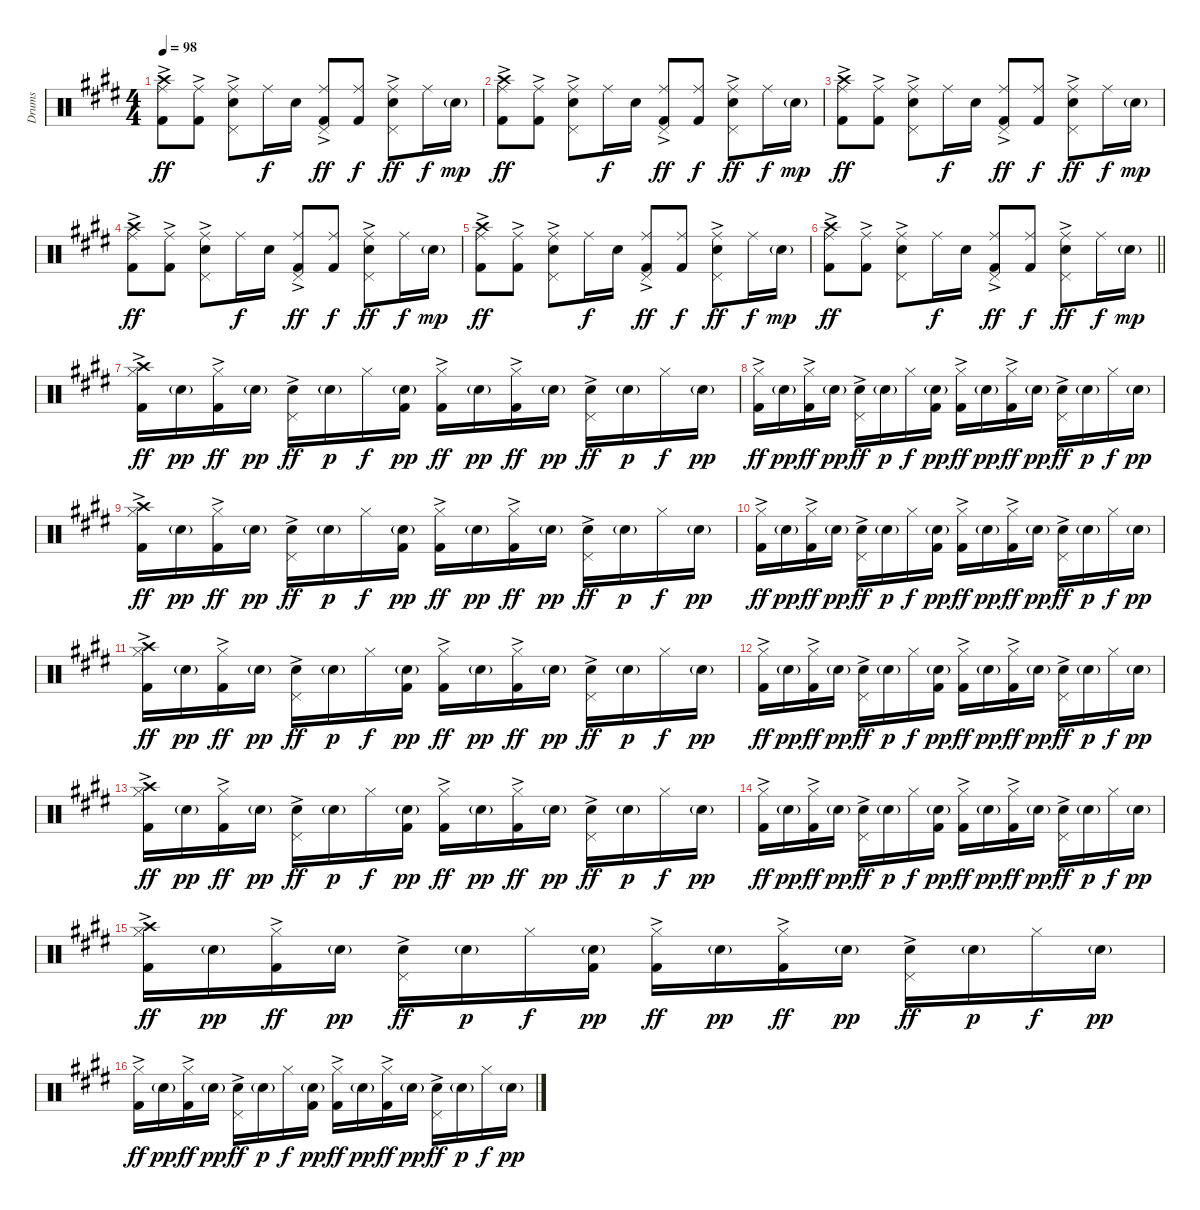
\track ("Drums" "Drums") {instrument percussion}
\staff {score}
\articulation defaults
\ts (4 4)
\tempo 98
\clef neutral
\ks e
("Crash high (hit)" "Ride (middle)" "Kick (hit) 2"{ac}).8{dy ff} ("Ride (middle)" "Kick (hit) 2"{ac}).8 ("Pedal Hi-Hat (hit)" "Snare (hit) 2"{ac} "Ride (middle)").8 "Ride (middle)".16{dy f} "Snare (hit) 2".16 ("Pedal Hi-Hat (hit)" "Ride (middle)" "Kick (hit) 2"{ac}).8{dy ff} ("Ride (middle)" "Kick (hit) 2").8{dy f} ("Pedal Hi-Hat (hit)" "Snare (hit) 2"{ac} "Ride (middle)").8{dy ff} "Ride (middle)".16{dy f} "Snare (hit) 2"{g}.16{dy mp} |
("Crash high (hit)" "Ride (middle)" "Kick (hit) 2"{ac}).8{dy ff} ("Ride (middle)" "Kick (hit) 2"{ac}).8 ("Pedal Hi-Hat (hit)" "Snare (hit) 2"{ac} "Ride (middle)").8 "Ride (middle)".16{dy f} "Snare (hit) 2".16 ("Pedal Hi-Hat (hit)" "Ride (middle)" "Kick (hit) 2"{ac}).8{dy ff} ("Ride (middle)" "Kick (hit) 2").8{dy f} ("Pedal Hi-Hat (hit)" "Snare (hit) 2"{ac} "Ride (middle)").8{dy ff} "Ride (middle)".16{dy f} "Snare (hit) 2"{g}.16{dy mp} |
("Crash high (hit)" "Ride (middle)" "Kick (hit) 2"{ac}).8{dy ff} ("Ride (middle)" "Kick (hit) 2"{ac}).8 ("Pedal Hi-Hat (hit)" "Snare (hit) 2"{ac} "Ride (middle)").8 "Ride (middle)".16{dy f} "Snare (hit) 2".16 ("Pedal Hi-Hat (hit)" "Ride (middle)" "Kick (hit) 2"{ac}).8{dy ff} ("Ride (middle)" "Kick (hit) 2").8{dy f} ("Pedal Hi-Hat (hit)" "Snare (hit) 2"{ac} "Ride (middle)").8{dy ff} "Ride (middle)".16{dy f} "Snare (hit) 2"{g}.16{dy mp} |
("Crash high (hit)" "Ride (middle)" "Kick (hit) 2"{ac}).8{dy ff} ("Ride (middle)" "Kick (hit) 2"{ac}).8 ("Pedal Hi-Hat (hit)" "Snare (hit) 2"{ac} "Ride (middle)").8 "Ride (middle)".16{dy f} "Snare (hit) 2".16 ("Pedal Hi-Hat (hit)" "Ride (middle)" "Kick (hit) 2"{ac}).8{dy ff} ("Ride (middle)" "Kick (hit) 2").8{dy f} ("Pedal Hi-Hat (hit)" "Snare (hit) 2"{ac} "Ride (middle)").8{dy ff} "Ride (middle)".16{dy f} "Snare (hit) 2"{g}.16{dy mp} |
("Crash high (hit)" "Ride (middle)" "Kick (hit) 2"{ac}).8{dy ff} ("Ride (middle)" "Kick (hit) 2"{ac}).8 ("Pedal Hi-Hat (hit)" "Snare (hit) 2"{ac} "Ride (middle)").8 "Ride (middle)".16{dy f} "Snare (hit) 2".16 ("Pedal Hi-Hat (hit)" "Ride (middle)" "Kick (hit) 2"{ac}).8{dy ff} ("Ride (middle)" "Kick (hit) 2").8{dy f} ("Pedal Hi-Hat (hit)" "Snare (hit) 2"{ac} "Ride (middle)").8{dy ff} "Ride (middle)".16{dy f} "Snare (hit) 2"{g}.16{dy mp} |
\barLineRight lightlight
("Crash high (hit)" "Ride (middle)" "Kick (hit) 2"{ac}).8{dy ff} ("Ride (middle)" "Kick (hit) 2"{ac}).8 ("Pedal Hi-Hat (hit)" "Snare (hit) 2"{ac} "Ride (middle)").8 "Ride (middle)".16{dy f} "Snare (hit) 2".16 ("Pedal Hi-Hat (hit)" "Ride (middle)" "Kick (hit) 2"{ac}).8{dy ff} ("Ride (middle)" "Kick (hit) 2").8{dy f} ("Pedal Hi-Hat (hit)" "Snare (hit) 2"{ac} "Ride (middle)").8{dy ff} "Ride (middle)".16{dy f} "Snare (hit) 2"{g}.16{dy mp} |
("Hi-Hat (closed)" "Crash high (hit)" "Kick (hit) 2"{ac}).16{dy ff} "Snare (hit) 2"{g}.16{dy pp} ("Hi-Hat (closed)" "Kick (hit) 2"{ac}).16{dy ff} "Snare (hit) 2"{g}.16{dy pp} ("Pedal Hi-Hat (hit)" "Snare (hit) 2"{ac}).16{dy ff} "Snare (hit) 2"{g}.16{dy p} "Hi-Hat (closed)".16{dy f} ("Snare (hit) 2"{g} "Kick (hit) 2").16{dy pp} ("Hi-Hat (closed)" "Kick (hit) 2"{ac}).16{dy ff} "Snare (hit) 2"{g}.16{dy pp} ("Hi-Hat (closed)" "Kick (hit) 2"{ac}).16{dy ff} "Snare (hit) 2"{g}.16{dy pp} ("Pedal Hi-Hat (hit)" "Snare (hit) 2"{ac}).16{dy ff} "Snare (hit) 2"{g}.16{dy p} "Hi-Hat (closed)".16{dy f} "Snare (hit) 2"{g}.16{dy pp} |
("Hi-Hat (closed)" "Kick (hit) 2"{ac}).16{dy ff} "Snare (hit) 2"{g}.16{dy pp} ("Hi-Hat (closed)" "Kick (hit) 2"{ac}).16{dy ff} "Snare (hit) 2"{g}.16{dy pp} ("Pedal Hi-Hat (hit)" "Snare (hit) 2"{ac}).16{dy ff} "Snare (hit) 2"{g}.16{dy p} "Hi-Hat (closed)".16{dy f} ("Snare (hit) 2"{g} "Kick (hit) 2").16{dy pp} ("Hi-Hat (closed)" "Kick (hit) 2"{ac}).16{dy ff} "Snare (hit) 2"{g}.16{dy pp} ("Hi-Hat (closed)" "Kick (hit) 2"{ac}).16{dy ff} "Snare (hit) 2"{g}.16{dy pp} ("Pedal Hi-Hat (hit)" "Snare (hit) 2"{ac}).16{dy ff} "Snare (hit) 2"{g}.16{dy p} "Hi-Hat (closed)".16{dy f} "Snare (hit) 2"{g}.16{dy pp} |
("Hi-Hat (closed)" "Crash high (hit)" "Kick (hit) 2"{ac}).16{dy ff} "Snare (hit) 2"{g}.16{dy pp} ("Hi-Hat (closed)" "Kick (hit) 2"{ac}).16{dy ff} "Snare (hit) 2"{g}.16{dy pp} ("Pedal Hi-Hat (hit)" "Snare (hit) 2"{ac}).16{dy ff} "Snare (hit) 2"{g}.16{dy p} "Hi-Hat (closed)".16{dy f} ("Snare (hit) 2"{g} "Kick (hit) 2").16{dy pp} ("Hi-Hat (closed)" "Kick (hit) 2"{ac}).16{dy ff} "Snare (hit) 2"{g}.16{dy pp} ("Hi-Hat (closed)" "Kick (hit) 2"{ac}).16{dy ff} "Snare (hit) 2"{g}.16{dy pp} ("Pedal Hi-Hat (hit)" "Snare (hit) 2"{ac}).16{dy ff} "Snare (hit) 2"{g}.16{dy p} "Hi-Hat (closed)".16{dy f} "Snare (hit) 2"{g}.16{dy pp} |
("Hi-Hat (closed)" "Kick (hit) 2"{ac}).16{dy ff} "Snare (hit) 2"{g}.16{dy pp} ("Hi-Hat (closed)" "Kick (hit) 2"{ac}).16{dy ff} "Snare (hit) 2"{g}.16{dy pp} ("Pedal Hi-Hat (hit)" "Snare (hit) 2"{ac}).16{dy ff} "Snare (hit) 2"{g}.16{dy p} "Hi-Hat (closed)".16{dy f} ("Snare (hit) 2"{g} "Kick (hit) 2").16{dy pp} ("Hi-Hat (closed)" "Kick (hit) 2"{ac}).16{dy ff} "Snare (hit) 2"{g}.16{dy pp} ("Hi-Hat (closed)" "Kick (hit) 2"{ac}).16{dy ff} "Snare (hit) 2"{g}.16{dy pp} ("Pedal Hi-Hat (hit)" "Snare (hit) 2"{ac}).16{dy ff} "Snare (hit) 2"{g}.16{dy p} "Hi-Hat (closed)".16{dy f} "Snare (hit) 2"{g}.16{dy pp} |
("Hi-Hat (closed)" "Crash high (hit)" "Kick (hit) 2"{ac}).16{dy ff} "Snare (hit) 2"{g}.16{dy pp} ("Hi-Hat (closed)" "Kick (hit) 2"{ac}).16{dy ff} "Snare (hit) 2"{g}.16{dy pp} ("Pedal Hi-Hat (hit)" "Snare (hit) 2"{ac}).16{dy ff} "Snare (hit) 2"{g}.16{dy p} "Hi-Hat (closed)".16{dy f} ("Snare (hit) 2"{g} "Kick (hit) 2").16{dy pp} ("Hi-Hat (closed)" "Kick (hit) 2"{ac}).16{dy ff} "Snare (hit) 2"{g}.16{dy pp} ("Hi-Hat (closed)" "Kick (hit) 2"{ac}).16{dy ff} "Snare (hit) 2"{g}.16{dy pp} ("Pedal Hi-Hat (hit)" "Snare (hit) 2"{ac}).16{dy ff} "Snare (hit) 2"{g}.16{dy p} "Hi-Hat (closed)".16{dy f} "Snare (hit) 2"{g}.16{dy pp} |
("Hi-Hat (closed)" "Kick (hit) 2"{ac}).16{dy ff} "Snare (hit) 2"{g}.16{dy pp} ("Hi-Hat (closed)" "Kick (hit) 2"{ac}).16{dy ff} "Snare (hit) 2"{g}.16{dy pp} ("Pedal Hi-Hat (hit)" "Snare (hit) 2"{ac}).16{dy ff} "Snare (hit) 2"{g}.16{dy p} "Hi-Hat (closed)".16{dy f} ("Snare (hit) 2"{g} "Kick (hit) 2").16{dy pp} ("Hi-Hat (closed)" "Kick (hit) 2"{ac}).16{dy ff} "Snare (hit) 2"{g}.16{dy pp} ("Hi-Hat (closed)" "Kick (hit) 2"{ac}).16{dy ff} "Snare (hit) 2"{g}.16{dy pp} ("Pedal Hi-Hat (hit)" "Snare (hit) 2"{ac}).16{dy ff} "Snare (hit) 2"{g}.16{dy p} "Hi-Hat (closed)".16{dy f} "Snare (hit) 2"{g}.16{dy pp} |
("Hi-Hat (closed)" "Crash high (hit)" "Kick (hit) 2"{ac}).16{dy ff} "Snare (hit) 2"{g}.16{dy pp} ("Hi-Hat (closed)" "Kick (hit) 2"{ac}).16{dy ff} "Snare (hit) 2"{g}.16{dy pp} ("Pedal Hi-Hat (hit)" "Snare (hit) 2"{ac}).16{dy ff} "Snare (hit) 2"{g}.16{dy p} "Hi-Hat (closed)".16{dy f} ("Snare (hit) 2"{g} "Kick (hit) 2").16{dy pp} ("Hi-Hat (closed)" "Kick (hit) 2"{ac}).16{dy ff} "Snare (hit) 2"{g}.16{dy pp} ("Hi-Hat (closed)" "Kick (hit) 2"{ac}).16{dy ff} "Snare (hit) 2"{g}.16{dy pp} ("Pedal Hi-Hat (hit)" "Snare (hit) 2"{ac}).16{dy ff} "Snare (hit) 2"{g}.16{dy p} "Hi-Hat (closed)".16{dy f} "Snare (hit) 2"{g}.16{dy pp} |
("Hi-Hat (closed)" "Kick (hit) 2"{ac}).16{dy ff} "Snare (hit) 2"{g}.16{dy pp} ("Hi-Hat (closed)" "Kick (hit) 2"{ac}).16{dy ff} "Snare (hit) 2"{g}.16{dy pp} ("Pedal Hi-Hat (hit)" "Snare (hit) 2"{ac}).16{dy ff} "Snare (hit) 2"{g}.16{dy p} "Hi-Hat (closed)".16{dy f} ("Snare (hit) 2"{g} "Kick (hit) 2").16{dy pp} ("Hi-Hat (closed)" "Kick (hit) 2"{ac}).16{dy ff} "Snare (hit) 2"{g}.16{dy pp} ("Hi-Hat (closed)" "Kick (hit) 2"{ac}).16{dy ff} "Snare (hit) 2"{g}.16{dy pp} ("Pedal Hi-Hat (hit)" "Snare (hit) 2"{ac}).16{dy ff} "Snare (hit) 2"{g}.16{dy p} "Hi-Hat (closed)".16{dy f} "Snare (hit) 2"{g}.16{dy pp} |
("Hi-Hat (closed)" "Crash high (hit)" "Kick (hit) 2"{ac}).16{dy ff} "Snare (hit) 2"{g}.16{dy pp} ("Hi-Hat (closed)" "Kick (hit) 2"{ac}).16{dy ff} "Snare (hit) 2"{g}.16{dy pp} ("Pedal Hi-Hat (hit)" "Snare (hit) 2"{ac}).16{dy ff} "Snare (hit) 2"{g}.16{dy p} "Hi-Hat (closed)".16{dy f} ("Snare (hit) 2"{g} "Kick (hit) 2").16{dy pp} ("Hi-Hat (closed)" "Kick (hit) 2"{ac}).16{dy ff} "Snare (hit) 2"{g}.16{dy pp} ("Hi-Hat (closed)" "Kick (hit) 2"{ac}).16{dy ff} "Snare (hit) 2"{g}.16{dy pp} ("Pedal Hi-Hat (hit)" "Snare (hit) 2"{ac}).16{dy ff} "Snare (hit) 2"{g}.16{dy p} "Hi-Hat (closed)".16{dy f} "Snare (hit) 2"{g}.16{dy pp} |
("Hi-Hat (closed)" "Kick (hit) 2"{ac}).16{dy ff} "Snare (hit) 2"{g}.16{dy pp} ("Hi-Hat (closed)" "Kick (hit) 2"{ac}).16{dy ff} "Snare (hit) 2"{g}.16{dy pp} ("Pedal Hi-Hat (hit)" "Snare (hit) 2"{ac}).16{dy ff} "Snare (hit) 2"{g}.16{dy p} "Hi-Hat (closed)".16{dy f} ("Snare (hit) 2"{g} "Kick (hit) 2").16{dy pp} ("Hi-Hat (closed)" "Kick (hit) 2"{ac}).16{dy ff} "Snare (hit) 2"{g}.16{dy pp} ("Hi-Hat (closed)" "Kick (hit) 2"{ac}).16{dy ff} "Snare (hit) 2"{g}.16{dy pp} ("Pedal Hi-Hat (hit)" "Snare (hit) 2"{ac}).16{dy ff} "Snare (hit) 2"{g}.16{dy p} "Hi-Hat (closed)".16{dy f} "Snare (hit) 2"{g}.16{dy pp}
